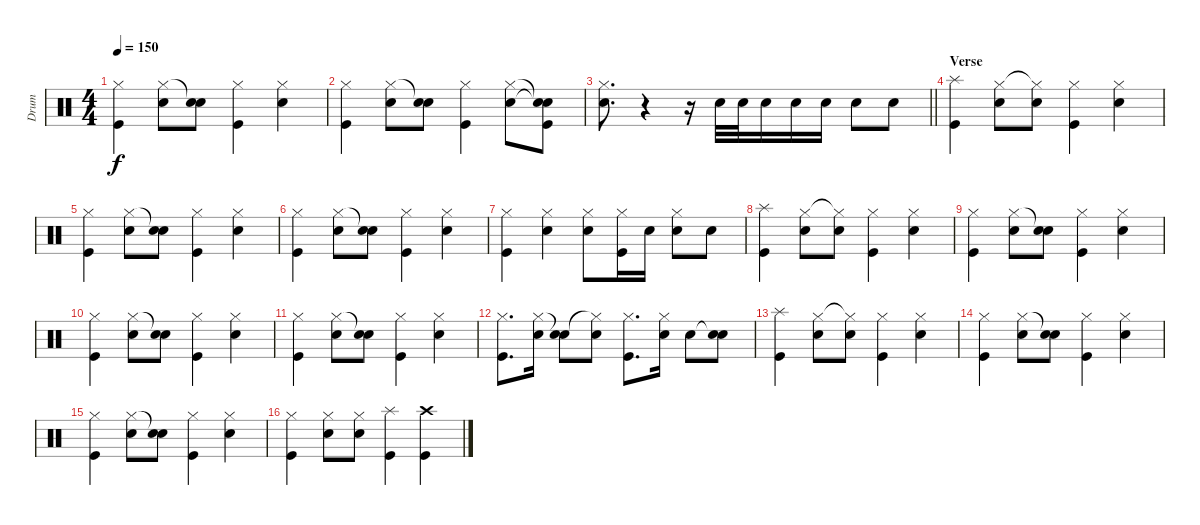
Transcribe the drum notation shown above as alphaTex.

\track ("Drum" "Drum") {instrument percussion}
\staff {score}
\articulation defaults
\ts (4 4)
\tempo 150
\clef neutral
\ks c
("Hi-Hat (closed)" "Kick (hit)").4{dy f} ("Hi-Hat (closed)" "Snare (hit) 2").8 ("Snare (hit)"{t} "Snare (hit) 2").8 ("Hi-Hat (closed)" "Kick (hit)").4 ("Hi-Hat (closed)" "Snare (hit) 2").4 |
("Hi-Hat (closed)" "Kick (hit)").4 ("Hi-Hat (closed)" "Snare (hit) 2").8 ("Snare (hit)"{t} "Snare (hit) 2").8 ("Hi-Hat (closed)" "Kick (hit)").4 ("Hi-Hat (closed)" "Snare (hit) 2").8 ("Snare (hit)"{t} "Snare (hit)"{t} "Kick (hit)").8 |
\barLineRight lightlight
("Hi-Hat (closed)" "Snare (hit) 2").8{d} r.4 r.16 "Snare (hit) 2".32 "Snare (hit) 2".32 "Snare (hit) 2".16 "Snare (hit) 2".16 "Snare (hit) 2".16 "Snare (hit) 2".8 "Snare (hit) 2".8 |
\section ("" "Verse")
("Splash (hit)" "Kick (hit)").4 ("Hi-Hat (closed)" "Snare (hit) 2").8 ("Hi-Hat (closed)"{t} "Snare (hit) 2").8 ("Hi-Hat (closed)" "Kick (hit)").4 ("Hi-Hat (closed)" "Snare (hit) 2").4 |
("Hi-Hat (closed)" "Kick (hit)").4 ("Hi-Hat (closed)" "Snare (hit) 2").8 ("Snare (hit)"{t} "Snare (hit) 2").8 ("Hi-Hat (closed)" "Kick (hit)").4 ("Hi-Hat (closed)" "Snare (hit) 2").4 |
("Hi-Hat (closed)" "Kick (hit)").4 ("Hi-Hat (closed)" "Snare (hit) 2").8 ("Snare (hit)"{t} "Snare (hit) 2").8 ("Hi-Hat (closed)" "Kick (hit)").4 ("Hi-Hat (closed)" "Snare (hit) 2").4 |
("Hi-Hat (closed)" "Kick (hit)").4 ("Hi-Hat (closed)" "Snare (hit) 2").4 ("Hi-Hat (closed)" "Snare (hit) 2").8 ("Hi-Hat (closed)" "Kick (hit)").16 "Snare (hit) 2".16 ("Hi-Hat (closed)" "Snare (hit) 2").8 "Snare (hit) 2".8 |
("Splash (hit)" "Kick (hit)").4 ("Hi-Hat (closed)" "Snare (hit) 2").8 ("Hi-Hat (closed)"{t} "Snare (hit) 2").8 ("Hi-Hat (closed)" "Kick (hit)").4 ("Hi-Hat (closed)" "Snare (hit) 2").4 |
("Hi-Hat (closed)" "Kick (hit)").4 ("Hi-Hat (closed)" "Snare (hit) 2").8 ("Snare (hit)"{t} "Snare (hit) 2").8 ("Hi-Hat (closed)" "Kick (hit)").4 ("Hi-Hat (closed)" "Snare (hit) 2").4 |
("Hi-Hat (closed)" "Kick (hit)").4 ("Hi-Hat (closed)" "Snare (hit) 2").8 ("Snare (hit)"{t} "Snare (hit) 2").8 ("Hi-Hat (closed)" "Kick (hit)").4 ("Hi-Hat (closed)" "Snare (hit) 2").4 |
("Hi-Hat (closed)" "Kick (hit)").4 ("Hi-Hat (closed)" "Snare (hit) 2").8 ("Snare (hit)"{t} "Snare (hit) 2").8 ("Hi-Hat (closed)" "Kick (hit)").4 ("Hi-Hat (closed)" "Snare (hit) 2").4 |
("Hi-Hat (closed)" "Kick (hit)").8{d} ("Hi-Hat (closed)" "Snare (hit) 2").16 ("Snare (hit)"{t} "Snare (hit) 2").8 ("Hi-Hat (closed)"{t} "Snare (hit) 2").8 ("Hi-Hat (closed)" "Kick (hit)").8{d} ("Hi-Hat (closed)" "Snare (hit) 2").16 "Snare (hit) 2".8 ("Snare (hit)"{t} "Snare (hit) 2").8 |
("Splash (hit)" "Kick (hit)").4 ("Hi-Hat (closed)" "Snare (hit) 2").8 ("Hi-Hat (closed)"{t} "Snare (hit) 2").8 ("Hi-Hat (closed)" "Kick (hit)").4 ("Hi-Hat (closed)" "Snare (hit) 2").4 |
("Hi-Hat (closed)" "Kick (hit)").4 ("Hi-Hat (closed)" "Snare (hit) 2").8 ("Snare (hit)"{t} "Snare (hit) 2").8 ("Hi-Hat (closed)" "Kick (hit)").4 ("Hi-Hat (closed)" "Snare (hit) 2").4 |
("Hi-Hat (closed)" "Kick (hit)").4 ("Hi-Hat (closed)" "Snare (hit) 2").8 ("Snare (hit)"{t} "Snare (hit) 2").8 ("Hi-Hat (closed)" "Kick (hit)").4 ("Hi-Hat (closed)" "Snare (hit) 2").4 |
("Hi-Hat (closed)" "Kick (hit)").4 ("Hi-Hat (closed)" "Snare (hit) 2").8 ("Hi-Hat (closed)" "Snare (hit) 2").8 ("Splash (hit)" "Kick (hit)").4 ("Crash high (hit)" "Kick (hit)").4
